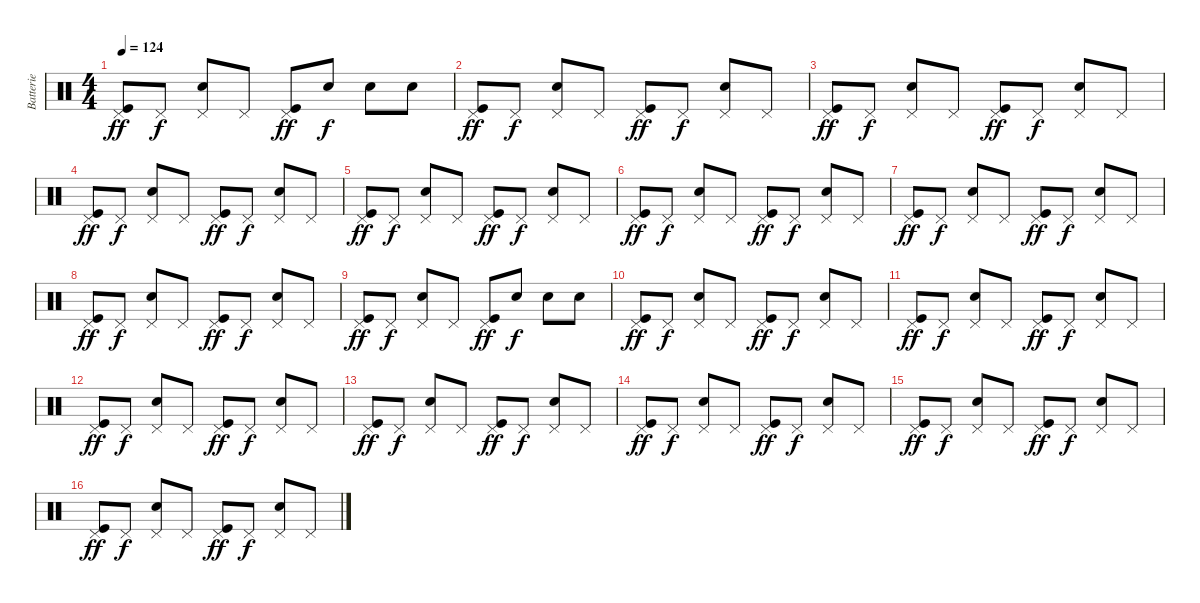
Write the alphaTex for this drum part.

\track ("Batterie" "Batterie") {instrument percussion}
\staff {score}
\articulation defaults
\ts (4 4)
\tempo 124
\clef neutral
\ks c
("Pedal Hi-Hat (hit)" "Kick (hit)").8{dy ff} "Pedal Hi-Hat (hit)".8{dy f} ("Pedal Hi-Hat (hit)" "Electric Snare (hit)").8 "Pedal Hi-Hat (hit)".8 ("Pedal Hi-Hat (hit)" "Kick (hit)").8{dy ff} "Electric Snare (hit)".8{dy f} "Electric Snare (hit)".8 "Electric Snare (hit)".8 |
("Pedal Hi-Hat (hit)" "Kick (hit)").8{dy ff} "Pedal Hi-Hat (hit)".8{dy f} ("Pedal Hi-Hat (hit)" "Electric Snare (hit)").8 "Pedal Hi-Hat (hit)".8 ("Pedal Hi-Hat (hit)" "Kick (hit)").8{dy ff} "Pedal Hi-Hat (hit)".8{dy f} ("Pedal Hi-Hat (hit)" "Electric Snare (hit)").8 "Pedal Hi-Hat (hit)".8 |
("Pedal Hi-Hat (hit)" "Kick (hit)").8{dy ff} "Pedal Hi-Hat (hit)".8{dy f} ("Pedal Hi-Hat (hit)" "Electric Snare (hit)").8 "Pedal Hi-Hat (hit)".8 ("Pedal Hi-Hat (hit)" "Kick (hit)").8{dy ff} "Pedal Hi-Hat (hit)".8{dy f} ("Pedal Hi-Hat (hit)" "Electric Snare (hit)").8 "Pedal Hi-Hat (hit)".8 |
("Pedal Hi-Hat (hit)" "Kick (hit)").8{dy ff} "Pedal Hi-Hat (hit)".8{dy f} ("Pedal Hi-Hat (hit)" "Electric Snare (hit)").8 "Pedal Hi-Hat (hit)".8 ("Pedal Hi-Hat (hit)" "Kick (hit)").8{dy ff} "Pedal Hi-Hat (hit)".8{dy f} ("Pedal Hi-Hat (hit)" "Electric Snare (hit)").8 "Pedal Hi-Hat (hit)".8 |
("Pedal Hi-Hat (hit)" "Kick (hit)").8{dy ff} "Pedal Hi-Hat (hit)".8{dy f} ("Pedal Hi-Hat (hit)" "Electric Snare (hit)").8 "Pedal Hi-Hat (hit)".8 ("Pedal Hi-Hat (hit)" "Kick (hit)").8{dy ff} "Pedal Hi-Hat (hit)".8{dy f} ("Pedal Hi-Hat (hit)" "Electric Snare (hit)").8 "Pedal Hi-Hat (hit)".8 |
("Pedal Hi-Hat (hit)" "Kick (hit)").8{dy ff} "Pedal Hi-Hat (hit)".8{dy f} ("Pedal Hi-Hat (hit)" "Electric Snare (hit)").8 "Pedal Hi-Hat (hit)".8 ("Pedal Hi-Hat (hit)" "Kick (hit)").8{dy ff} "Pedal Hi-Hat (hit)".8{dy f} ("Pedal Hi-Hat (hit)" "Electric Snare (hit)").8 "Pedal Hi-Hat (hit)".8 |
("Pedal Hi-Hat (hit)" "Kick (hit)").8{dy ff} "Pedal Hi-Hat (hit)".8{dy f} ("Pedal Hi-Hat (hit)" "Electric Snare (hit)").8 "Pedal Hi-Hat (hit)".8 ("Pedal Hi-Hat (hit)" "Kick (hit)").8{dy ff} "Pedal Hi-Hat (hit)".8{dy f} ("Pedal Hi-Hat (hit)" "Electric Snare (hit)").8 "Pedal Hi-Hat (hit)".8 |
("Pedal Hi-Hat (hit)" "Kick (hit)").8{dy ff} "Pedal Hi-Hat (hit)".8{dy f} ("Pedal Hi-Hat (hit)" "Electric Snare (hit)").8 "Pedal Hi-Hat (hit)".8 ("Pedal Hi-Hat (hit)" "Kick (hit)").8{dy ff} "Pedal Hi-Hat (hit)".8{dy f} ("Pedal Hi-Hat (hit)" "Electric Snare (hit)").8 "Pedal Hi-Hat (hit)".8 |
("Pedal Hi-Hat (hit)" "Kick (hit)").8{dy ff} "Pedal Hi-Hat (hit)".8{dy f} ("Pedal Hi-Hat (hit)" "Electric Snare (hit)").8 "Pedal Hi-Hat (hit)".8 ("Pedal Hi-Hat (hit)" "Kick (hit)").8{dy ff} "Electric Snare (hit)".8{dy f} "Electric Snare (hit)".8 "Electric Snare (hit)".8 |
("Pedal Hi-Hat (hit)" "Kick (hit)").8{dy ff} "Pedal Hi-Hat (hit)".8{dy f} ("Pedal Hi-Hat (hit)" "Electric Snare (hit)").8 "Pedal Hi-Hat (hit)".8 ("Pedal Hi-Hat (hit)" "Kick (hit)").8{dy ff} "Pedal Hi-Hat (hit)".8{dy f} ("Pedal Hi-Hat (hit)" "Electric Snare (hit)").8 "Pedal Hi-Hat (hit)".8 |
("Pedal Hi-Hat (hit)" "Kick (hit)").8{dy ff} "Pedal Hi-Hat (hit)".8{dy f} ("Pedal Hi-Hat (hit)" "Electric Snare (hit)").8 "Pedal Hi-Hat (hit)".8 ("Pedal Hi-Hat (hit)" "Kick (hit)").8{dy ff} "Pedal Hi-Hat (hit)".8{dy f} ("Pedal Hi-Hat (hit)" "Electric Snare (hit)").8 "Pedal Hi-Hat (hit)".8 |
("Pedal Hi-Hat (hit)" "Kick (hit)").8{dy ff} "Pedal Hi-Hat (hit)".8{dy f} ("Pedal Hi-Hat (hit)" "Electric Snare (hit)").8 "Pedal Hi-Hat (hit)".8 ("Pedal Hi-Hat (hit)" "Kick (hit)").8{dy ff} "Pedal Hi-Hat (hit)".8{dy f} ("Pedal Hi-Hat (hit)" "Electric Snare (hit)").8 "Pedal Hi-Hat (hit)".8 |
("Pedal Hi-Hat (hit)" "Kick (hit)").8{dy ff} "Pedal Hi-Hat (hit)".8{dy f} ("Pedal Hi-Hat (hit)" "Electric Snare (hit)").8 "Pedal Hi-Hat (hit)".8 ("Pedal Hi-Hat (hit)" "Kick (hit)").8{dy ff} "Pedal Hi-Hat (hit)".8{dy f} ("Pedal Hi-Hat (hit)" "Electric Snare (hit)").8 "Pedal Hi-Hat (hit)".8 |
("Pedal Hi-Hat (hit)" "Kick (hit)").8{dy ff} "Pedal Hi-Hat (hit)".8{dy f} ("Pedal Hi-Hat (hit)" "Electric Snare (hit)").8 "Pedal Hi-Hat (hit)".8 ("Pedal Hi-Hat (hit)" "Kick (hit)").8{dy ff} "Pedal Hi-Hat (hit)".8{dy f} ("Pedal Hi-Hat (hit)" "Electric Snare (hit)").8 "Pedal Hi-Hat (hit)".8 |
("Pedal Hi-Hat (hit)" "Kick (hit)").8{dy ff} "Pedal Hi-Hat (hit)".8{dy f} ("Pedal Hi-Hat (hit)" "Electric Snare (hit)").8 "Pedal Hi-Hat (hit)".8 ("Pedal Hi-Hat (hit)" "Kick (hit)").8{dy ff} "Pedal Hi-Hat (hit)".8{dy f} ("Pedal Hi-Hat (hit)" "Electric Snare (hit)").8 "Pedal Hi-Hat (hit)".8 |
("Pedal Hi-Hat (hit)" "Kick (hit)").8{dy ff} "Pedal Hi-Hat (hit)".8{dy f} ("Pedal Hi-Hat (hit)" "Electric Snare (hit)").8 "Pedal Hi-Hat (hit)".8 ("Pedal Hi-Hat (hit)" "Kick (hit)").8{dy ff} "Pedal Hi-Hat (hit)".8{dy f} ("Pedal Hi-Hat (hit)" "Electric Snare (hit)").8 "Pedal Hi-Hat (hit)".8
